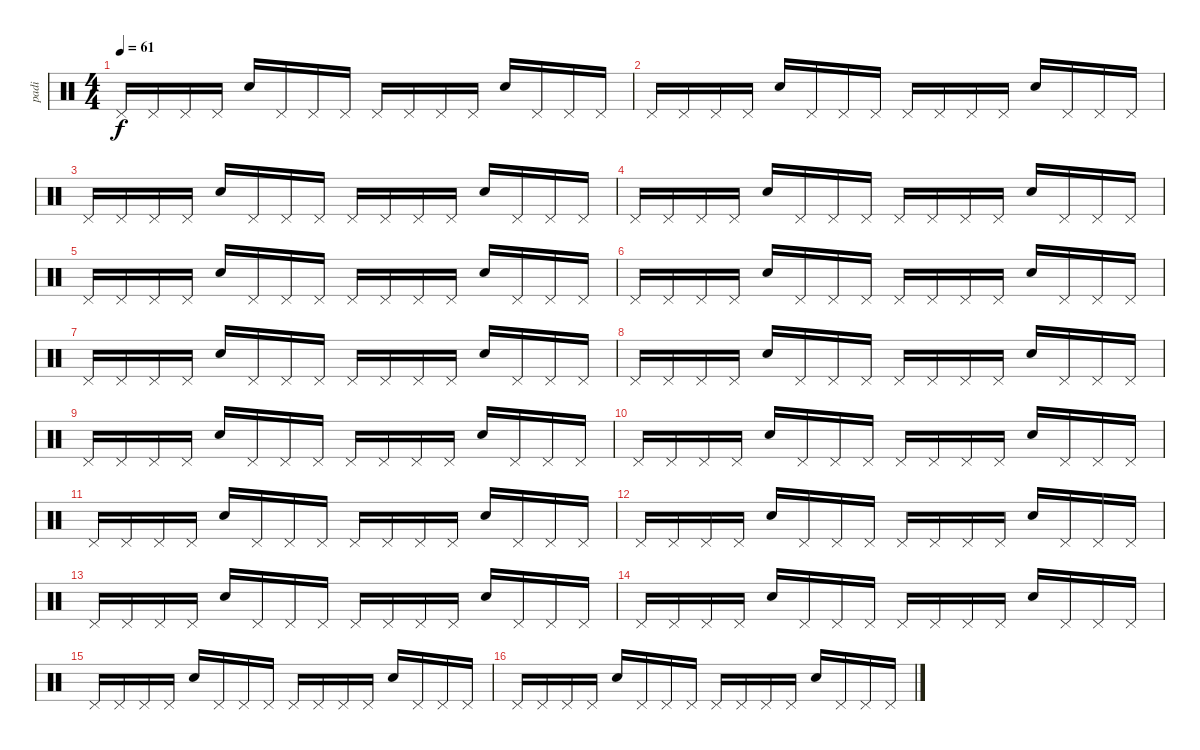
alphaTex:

\track ("padi" "padi") {instrument percussion}
\staff {score}
\articulation defaults
\ts (4 4)
\tempo 61
\clef neutral
\ks c "Pedal Hi-Hat (hit)".16{dy f} "Pedal Hi-Hat (hit)".16 "Pedal Hi-Hat (hit)".16 "Pedal Hi-Hat (hit)".16 "Snare (hit) 2".16 "Pedal Hi-Hat (hit)".16 "Pedal Hi-Hat (hit)".16 "Pedal Hi-Hat (hit)".16 "Pedal Hi-Hat (hit)".16 "Pedal Hi-Hat (hit)".16 "Pedal Hi-Hat (hit)".16 "Pedal Hi-Hat (hit)".16 "Snare (hit) 2".16 "Pedal Hi-Hat (hit)".16 "Pedal Hi-Hat (hit)".16 "Pedal Hi-Hat (hit)".16
|
"Pedal Hi-Hat (hit)".16 "Pedal Hi-Hat (hit)".16 "Pedal Hi-Hat (hit)".16 "Pedal Hi-Hat (hit)".16 "Snare (hit) 2".16 "Pedal Hi-Hat (hit)".16 "Pedal Hi-Hat (hit)".16 "Pedal Hi-Hat (hit)".16 "Pedal Hi-Hat (hit)".16 "Pedal Hi-Hat (hit)".16 "Pedal Hi-Hat (hit)".16 "Pedal Hi-Hat (hit)".16 "Snare (hit) 2".16 "Pedal Hi-Hat (hit)".16 "Pedal Hi-Hat (hit)".16 "Pedal Hi-Hat (hit)".16 |
"Pedal Hi-Hat (hit)".16 "Pedal Hi-Hat (hit)".16 "Pedal Hi-Hat (hit)".16 "Pedal Hi-Hat (hit)".16 "Snare (hit) 2".16 "Pedal Hi-Hat (hit)".16 "Pedal Hi-Hat (hit)".16 "Pedal Hi-Hat (hit)".16 "Pedal Hi-Hat (hit)".16 "Pedal Hi-Hat (hit)".16 "Pedal Hi-Hat (hit)".16 "Pedal Hi-Hat (hit)".16 "Snare (hit) 2".16 "Pedal Hi-Hat (hit)".16 "Pedal Hi-Hat (hit)".16 "Pedal Hi-Hat (hit)".16 |
"Pedal Hi-Hat (hit)".16 "Pedal Hi-Hat (hit)".16 "Pedal Hi-Hat (hit)".16 "Pedal Hi-Hat (hit)".16 "Snare (hit) 2".16 "Pedal Hi-Hat (hit)".16 "Pedal Hi-Hat (hit)".16 "Pedal Hi-Hat (hit)".16 "Pedal Hi-Hat (hit)".16 "Pedal Hi-Hat (hit)".16 "Pedal Hi-Hat (hit)".16 "Pedal Hi-Hat (hit)".16 "Snare (hit) 2".16 "Pedal Hi-Hat (hit)".16 "Pedal Hi-Hat (hit)".16 "Pedal Hi-Hat (hit)".16 |
"Pedal Hi-Hat (hit)".16 "Pedal Hi-Hat (hit)".16 "Pedal Hi-Hat (hit)".16 "Pedal Hi-Hat (hit)".16 "Snare (hit) 2".16 "Pedal Hi-Hat (hit)".16 "Pedal Hi-Hat (hit)".16 "Pedal Hi-Hat (hit)".16 "Pedal Hi-Hat (hit)".16 "Pedal Hi-Hat (hit)".16 "Pedal Hi-Hat (hit)".16 "Pedal Hi-Hat (hit)".16 "Snare (hit) 2".16 "Pedal Hi-Hat (hit)".16 "Pedal Hi-Hat (hit)".16 "Pedal Hi-Hat (hit)".16 |
"Pedal Hi-Hat (hit)".16 "Pedal Hi-Hat (hit)".16 "Pedal Hi-Hat (hit)".16 "Pedal Hi-Hat (hit)".16 "Snare (hit) 2".16 "Pedal Hi-Hat (hit)".16 "Pedal Hi-Hat (hit)".16 "Pedal Hi-Hat (hit)".16 "Pedal Hi-Hat (hit)".16 "Pedal Hi-Hat (hit)".16 "Pedal Hi-Hat (hit)".16 "Pedal Hi-Hat (hit)".16 "Snare (hit) 2".16 "Pedal Hi-Hat (hit)".16 "Pedal Hi-Hat (hit)".16 "Pedal Hi-Hat (hit)".16 |
"Pedal Hi-Hat (hit)".16 "Pedal Hi-Hat (hit)".16 "Pedal Hi-Hat (hit)".16 "Pedal Hi-Hat (hit)".16 "Snare (hit) 2".16 "Pedal Hi-Hat (hit)".16 "Pedal Hi-Hat (hit)".16 "Pedal Hi-Hat (hit)".16 "Pedal Hi-Hat (hit)".16 "Pedal Hi-Hat (hit)".16 "Pedal Hi-Hat (hit)".16 "Pedal Hi-Hat (hit)".16 "Snare (hit) 2".16 "Pedal Hi-Hat (hit)".16 "Pedal Hi-Hat (hit)".16 "Pedal Hi-Hat (hit)".16 |
"Pedal Hi-Hat (hit)".16 "Pedal Hi-Hat (hit)".16 "Pedal Hi-Hat (hit)".16 "Pedal Hi-Hat (hit)".16 "Snare (hit) 2".16 "Pedal Hi-Hat (hit)".16 "Pedal Hi-Hat (hit)".16 "Pedal Hi-Hat (hit)".16 "Pedal Hi-Hat (hit)".16 "Pedal Hi-Hat (hit)".16 "Pedal Hi-Hat (hit)".16 "Pedal Hi-Hat (hit)".16 "Snare (hit) 2".16 "Pedal Hi-Hat (hit)".16 "Pedal Hi-Hat (hit)".16 "Pedal Hi-Hat (hit)".16 |
"Pedal Hi-Hat (hit)".16 "Pedal Hi-Hat (hit)".16 "Pedal Hi-Hat (hit)".16 "Pedal Hi-Hat (hit)".16 "Snare (hit) 2".16 "Pedal Hi-Hat (hit)".16 "Pedal Hi-Hat (hit)".16 "Pedal Hi-Hat (hit)".16 "Pedal Hi-Hat (hit)".16 "Pedal Hi-Hat (hit)".16 "Pedal Hi-Hat (hit)".16 "Pedal Hi-Hat (hit)".16 "Snare (hit) 2".16 "Pedal Hi-Hat (hit)".16 "Pedal Hi-Hat (hit)".16 "Pedal Hi-Hat (hit)".16 |
"Pedal Hi-Hat (hit)".16 "Pedal Hi-Hat (hit)".16 "Pedal Hi-Hat (hit)".16 "Pedal Hi-Hat (hit)".16 "Snare (hit) 2".16 "Pedal Hi-Hat (hit)".16 "Pedal Hi-Hat (hit)".16 "Pedal Hi-Hat (hit)".16 "Pedal Hi-Hat (hit)".16 "Pedal Hi-Hat (hit)".16 "Pedal Hi-Hat (hit)".16 "Pedal Hi-Hat (hit)".16 "Snare (hit) 2".16 "Pedal Hi-Hat (hit)".16 "Pedal Hi-Hat (hit)".16 "Pedal Hi-Hat (hit)".16 |
"Pedal Hi-Hat (hit)".16 "Pedal Hi-Hat (hit)".16 "Pedal Hi-Hat (hit)".16 "Pedal Hi-Hat (hit)".16 "Snare (hit) 2".16 "Pedal Hi-Hat (hit)".16 "Pedal Hi-Hat (hit)".16 "Pedal Hi-Hat (hit)".16 "Pedal Hi-Hat (hit)".16 "Pedal Hi-Hat (hit)".16 "Pedal Hi-Hat (hit)".16 "Pedal Hi-Hat (hit)".16 "Snare (hit) 2".16 "Pedal Hi-Hat (hit)".16 "Pedal Hi-Hat (hit)".16 "Pedal Hi-Hat (hit)".16 |
"Pedal Hi-Hat (hit)".16 "Pedal Hi-Hat (hit)".16 "Pedal Hi-Hat (hit)".16 "Pedal Hi-Hat (hit)".16 "Snare (hit) 2".16 "Pedal Hi-Hat (hit)".16 "Pedal Hi-Hat (hit)".16 "Pedal Hi-Hat (hit)".16 "Pedal Hi-Hat (hit)".16 "Pedal Hi-Hat (hit)".16 "Pedal Hi-Hat (hit)".16 "Pedal Hi-Hat (hit)".16 "Snare (hit) 2".16 "Pedal Hi-Hat (hit)".16 "Pedal Hi-Hat (hit)".16 "Pedal Hi-Hat (hit)".16 |
"Pedal Hi-Hat (hit)".16 "Pedal Hi-Hat (hit)".16 "Pedal Hi-Hat (hit)".16 "Pedal Hi-Hat (hit)".16 "Snare (hit) 2".16 "Pedal Hi-Hat (hit)".16 "Pedal Hi-Hat (hit)".16 "Pedal Hi-Hat (hit)".16 "Pedal Hi-Hat (hit)".16 "Pedal Hi-Hat (hit)".16 "Pedal Hi-Hat (hit)".16 "Pedal Hi-Hat (hit)".16 "Snare (hit) 2".16 "Pedal Hi-Hat (hit)".16 "Pedal Hi-Hat (hit)".16 "Pedal Hi-Hat (hit)".16 |
"Pedal Hi-Hat (hit)".16 "Pedal Hi-Hat (hit)".16 "Pedal Hi-Hat (hit)".16 "Pedal Hi-Hat (hit)".16 "Snare (hit) 2".16 "Pedal Hi-Hat (hit)".16 "Pedal Hi-Hat (hit)".16 "Pedal Hi-Hat (hit)".16 "Pedal Hi-Hat (hit)".16 "Pedal Hi-Hat (hit)".16 "Pedal Hi-Hat (hit)".16 "Pedal Hi-Hat (hit)".16 "Snare (hit) 2".16 "Pedal Hi-Hat (hit)".16 "Pedal Hi-Hat (hit)".16 "Pedal Hi-Hat (hit)".16 |
"Pedal Hi-Hat (hit)".16 "Pedal Hi-Hat (hit)".16 "Pedal Hi-Hat (hit)".16 "Pedal Hi-Hat (hit)".16 "Snare (hit) 2".16 "Pedal Hi-Hat (hit)".16 "Pedal Hi-Hat (hit)".16 "Pedal Hi-Hat (hit)".16 "Pedal Hi-Hat (hit)".16 "Pedal Hi-Hat (hit)".16 "Pedal Hi-Hat (hit)".16 "Pedal Hi-Hat (hit)".16 "Snare (hit) 2".16 "Pedal Hi-Hat (hit)".16 "Pedal Hi-Hat (hit)".16 "Pedal Hi-Hat (hit)".16 |
"Pedal Hi-Hat (hit)".16 "Pedal Hi-Hat (hit)".16 "Pedal Hi-Hat (hit)".16 "Pedal Hi-Hat (hit)".16 "Snare (hit) 2".16 "Pedal Hi-Hat (hit)".16 "Pedal Hi-Hat (hit)".16 "Pedal Hi-Hat (hit)".16 "Pedal Hi-Hat (hit)".16 "Pedal Hi-Hat (hit)".16 "Pedal Hi-Hat (hit)".16 "Pedal Hi-Hat (hit)".16 "Snare (hit) 2".16 "Pedal Hi-Hat (hit)".16 "Pedal Hi-Hat (hit)".16 "Pedal Hi-Hat (hit)".16
